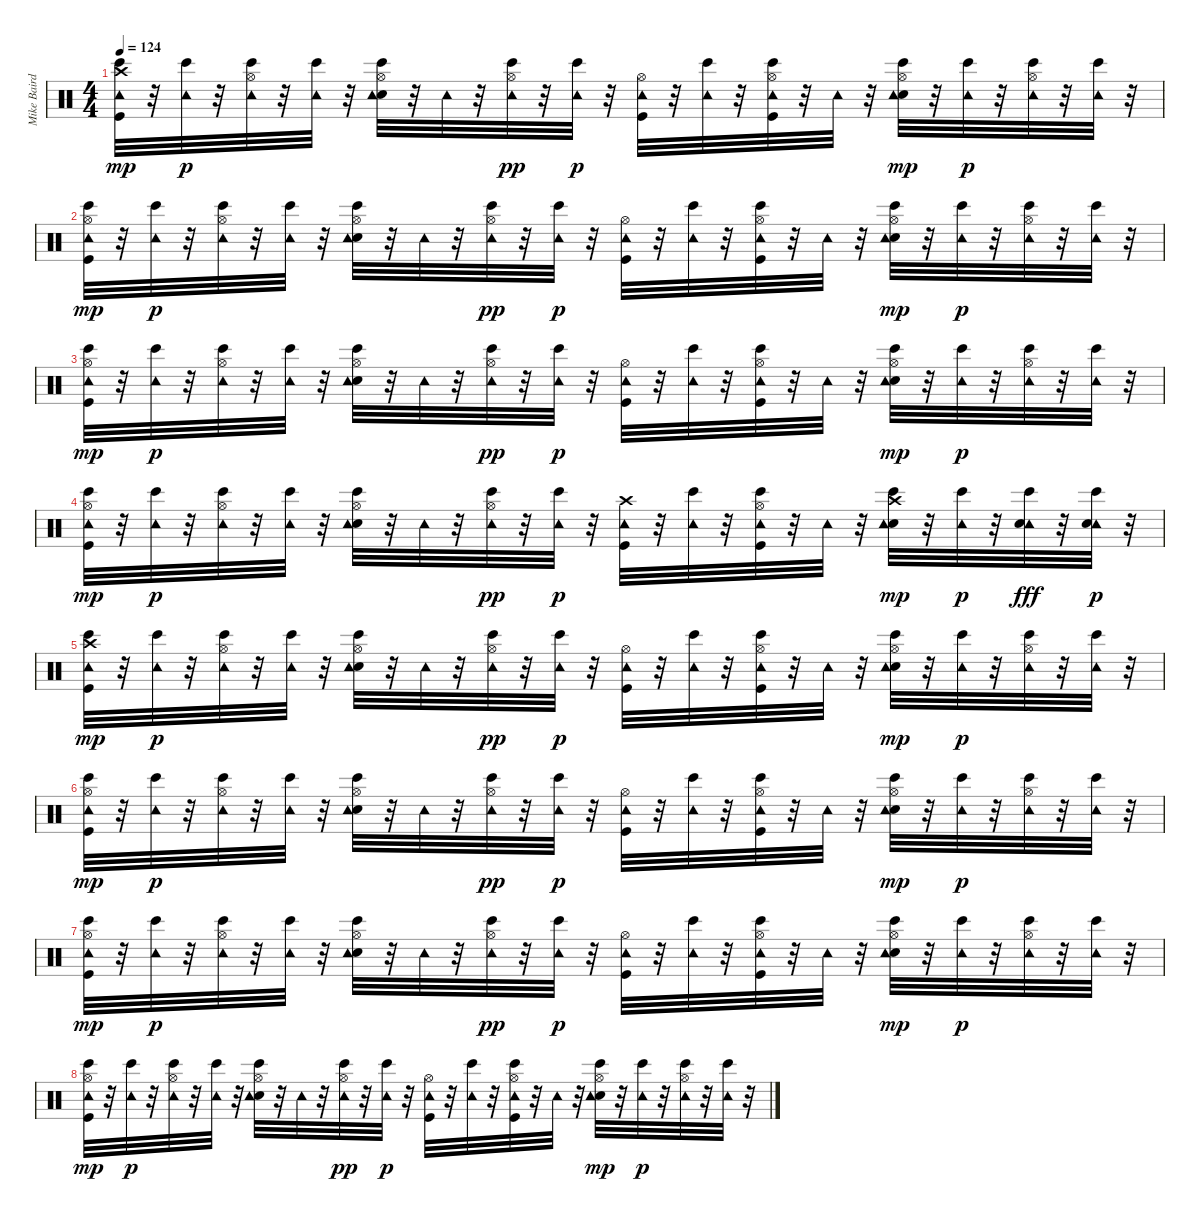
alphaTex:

\track ("Mike Baird [drums]" "Mike Baird") {instrument percussion}
\staff {score}
\articulation defaults
\ts (4 4)
\tempo 124
\clef neutral
\ks c
("Bongo High (hit)" "Kick (hit)" "Crash high (hit)" "Tambourine (hit)").32{dy mp} r.32 ("Tambourine (hit)" "Bongo High (hit)").32{dy p} r.32 ("Hi-Hat (open)" "Tambourine (hit)" "Bongo High (hit)").32 r.32 ("Tambourine (hit)" "Bongo High (hit)").32 r.32 ("Electric Snare (hit)" "Hi-Hat (open)" "Bongo High (hit)" "Tambourine (hit)").32 r.32 "Tambourine (hit)".32 r.32 ("Hi-Hat (open)" "Tambourine (hit)" "Bongo High (hit)").32{dy pp} r.32 ("Bongo High (hit)" "Tambourine (hit)").32{dy p} r.32 ("Kick (hit)" "Hi-Hat (open)" "Tambourine (hit)").32 r.32 ("Bongo High (hit)" "Tambourine (hit)").32 r.32 ("Bongo High (hit)" "Kick (hit)" "Hi-Hat (open)" "Tambourine (hit)").32 r.32 "Tambourine (hit)".32 r.32 ("Bongo High (hit)" "Electric Snare (hit)" "Hi-Hat (open)" "Tambourine (hit)").32{dy mp} r.32 ("Tambourine (hit)" "Bongo High (hit)").32{dy p} r.32 ("Bongo High (hit)" "Hi-Hat (open)" "Tambourine (hit)").32 r.32 ("Tambourine (hit)" "Bongo High (hit)").32 r.32 |
("Bongo High (hit)" "Kick (hit)" "Hi-Hat (open)" "Tambourine (hit)").32{dy mp} r.32 ("Tambourine (hit)" "Bongo High (hit)").32{dy p} r.32 ("Hi-Hat (open)" "Tambourine (hit)" "Bongo High (hit)").32 r.32 ("Tambourine (hit)" "Bongo High (hit)").32 r.32 ("Electric Snare (hit)" "Hi-Hat (open)" "Bongo High (hit)" "Tambourine (hit)").32 r.32 "Tambourine (hit)".32 r.32 ("Hi-Hat (open)" "Tambourine (hit)" "Bongo High (hit)").32{dy pp} r.32 ("Bongo High (hit)" "Tambourine (hit)").32{dy p} r.32 ("Kick (hit)" "Hi-Hat (open)" "Tambourine (hit)").32 r.32 ("Bongo High (hit)" "Tambourine (hit)").32 r.32 ("Bongo High (hit)" "Kick (hit)" "Hi-Hat (open)" "Tambourine (hit)").32 r.32 "Tambourine (hit)".32 r.32 ("Bongo High (hit)" "Electric Snare (hit)" "Hi-Hat (open)" "Tambourine (hit)").32{dy mp} r.32 ("Tambourine (hit)" "Bongo High (hit)").32{dy p} r.32 ("Bongo High (hit)" "Hi-Hat (open)" "Tambourine (hit)").32 r.32 ("Tambourine (hit)" "Bongo High (hit)").32 r.32 |
("Bongo High (hit)" "Kick (hit)" "Hi-Hat (open)" "Tambourine (hit)").32{dy mp} r.32 ("Tambourine (hit)" "Bongo High (hit)").32{dy p} r.32 ("Hi-Hat (open)" "Tambourine (hit)" "Bongo High (hit)").32 r.32 ("Tambourine (hit)" "Bongo High (hit)").32 r.32 ("Electric Snare (hit)" "Hi-Hat (open)" "Bongo High (hit)" "Tambourine (hit)").32 r.32 "Tambourine (hit)".32 r.32 ("Hi-Hat (open)" "Tambourine (hit)" "Bongo High (hit)").32{dy pp} r.32 ("Bongo High (hit)" "Tambourine (hit)").32{dy p} r.32 ("Kick (hit)" "Hi-Hat (open)" "Tambourine (hit)").32 r.32 ("Bongo High (hit)" "Tambourine (hit)").32 r.32 ("Bongo High (hit)" "Kick (hit)" "Hi-Hat (open)" "Tambourine (hit)").32 r.32 "Tambourine (hit)".32 r.32 ("Bongo High (hit)" "Electric Snare (hit)" "Hi-Hat (open)" "Tambourine (hit)").32{dy mp} r.32 ("Tambourine (hit)" "Bongo High (hit)").32{dy p} r.32 ("Bongo High (hit)" "Hi-Hat (open)" "Tambourine (hit)").32 r.32 ("Tambourine (hit)" "Bongo High (hit)").32 r.32 |
("Bongo High (hit)" "Kick (hit)" "Hi-Hat (open)" "Tambourine (hit)").32{dy mp} r.32 ("Tambourine (hit)" "Bongo High (hit)").32{dy p} r.32 ("Hi-Hat (open)" "Tambourine (hit)" "Bongo High (hit)").32 r.32 ("Tambourine (hit)" "Bongo High (hit)").32 r.32 ("Electric Snare (hit)" "Hi-Hat (open)" "Bongo High (hit)" "Tambourine (hit)").32 r.32 "Tambourine (hit)".32 r.32 ("Hi-Hat (open)" "Tambourine (hit)" "Bongo High (hit)").32{dy pp} r.32 ("Bongo High (hit)" "Tambourine (hit)").32{dy p} r.32 ("Kick (hit)" "Crash high (hit)" "Tambourine (hit)").32 r.32 ("Bongo High (hit)" "Tambourine (hit)").32 r.32 ("Bongo High (hit)" "Kick (hit)" "Hi-Hat (open)" "Tambourine (hit)").32 r.32 "Tambourine (hit)".32 r.32 ("Bongo High (hit)" "Electric Snare (hit)" "Crash high (hit)" "Tambourine (hit)").32{dy mp} r.32 ("Tambourine (hit)" "Bongo High (hit)").32{dy p} r.32 ("Bongo High (hit)" "Tambourine (hit)" "Electric Snare (hit)").32{dy fff} r.32 ("Tambourine (hit)" "Bongo High (hit)" "Electric Snare (hit)").32{dy p} r.32 |
("Bongo High (hit)" "Kick (hit)" "Crash high (hit)" "Tambourine (hit)").32{dy mp} r.32 ("Tambourine (hit)" "Bongo High (hit)").32{dy p} r.32 ("Hi-Hat (open)" "Tambourine (hit)" "Bongo High (hit)").32 r.32 ("Tambourine (hit)" "Bongo High (hit)").32 r.32 ("Electric Snare (hit)" "Hi-Hat (open)" "Bongo High (hit)" "Tambourine (hit)").32 r.32 "Tambourine (hit)".32 r.32 ("Hi-Hat (open)" "Tambourine (hit)" "Bongo High (hit)").32{dy pp} r.32 ("Bongo High (hit)" "Tambourine (hit)").32{dy p} r.32 ("Kick (hit)" "Hi-Hat (open)" "Tambourine (hit)").32 r.32 ("Bongo High (hit)" "Tambourine (hit)").32 r.32 ("Bongo High (hit)" "Kick (hit)" "Hi-Hat (open)" "Tambourine (hit)").32 r.32 "Tambourine (hit)".32 r.32 ("Bongo High (hit)" "Electric Snare (hit)" "Hi-Hat (open)" "Tambourine (hit)").32{dy mp} r.32 ("Tambourine (hit)" "Bongo High (hit)").32{dy p} r.32 ("Bongo High (hit)" "Hi-Hat (open)" "Tambourine (hit)").32 r.32 ("Tambourine (hit)" "Bongo High (hit)").32 r.32 |
("Bongo High (hit)" "Kick (hit)" "Hi-Hat (open)" "Tambourine (hit)").32{dy mp} r.32 ("Tambourine (hit)" "Bongo High (hit)").32{dy p} r.32 ("Hi-Hat (open)" "Tambourine (hit)" "Bongo High (hit)").32 r.32 ("Tambourine (hit)" "Bongo High (hit)").32 r.32 ("Electric Snare (hit)" "Hi-Hat (open)" "Bongo High (hit)" "Tambourine (hit)").32 r.32 "Tambourine (hit)".32 r.32 ("Hi-Hat (open)" "Tambourine (hit)" "Bongo High (hit)").32{dy pp} r.32 ("Bongo High (hit)" "Tambourine (hit)").32{dy p} r.32 ("Kick (hit)" "Hi-Hat (open)" "Tambourine (hit)").32 r.32 ("Bongo High (hit)" "Tambourine (hit)").32 r.32 ("Bongo High (hit)" "Kick (hit)" "Hi-Hat (open)" "Tambourine (hit)").32 r.32 "Tambourine (hit)".32 r.32 ("Bongo High (hit)" "Electric Snare (hit)" "Hi-Hat (open)" "Tambourine (hit)").32{dy mp} r.32 ("Tambourine (hit)" "Bongo High (hit)").32{dy p} r.32 ("Bongo High (hit)" "Hi-Hat (open)" "Tambourine (hit)").32 r.32 ("Tambourine (hit)" "Bongo High (hit)").32 r.32 |
("Bongo High (hit)" "Kick (hit)" "Hi-Hat (open)" "Tambourine (hit)").32{dy mp} r.32 ("Tambourine (hit)" "Bongo High (hit)").32{dy p} r.32 ("Hi-Hat (open)" "Tambourine (hit)" "Bongo High (hit)").32 r.32 ("Tambourine (hit)" "Bongo High (hit)").32 r.32 ("Electric Snare (hit)" "Hi-Hat (open)" "Bongo High (hit)" "Tambourine (hit)").32 r.32 "Tambourine (hit)".32 r.32 ("Hi-Hat (open)" "Tambourine (hit)" "Bongo High (hit)").32{dy pp} r.32 ("Bongo High (hit)" "Tambourine (hit)").32{dy p} r.32 ("Kick (hit)" "Hi-Hat (open)" "Tambourine (hit)").32 r.32 ("Bongo High (hit)" "Tambourine (hit)").32 r.32 ("Bongo High (hit)" "Kick (hit)" "Hi-Hat (open)" "Tambourine (hit)").32 r.32 "Tambourine (hit)".32 r.32 ("Bongo High (hit)" "Electric Snare (hit)" "Hi-Hat (open)" "Tambourine (hit)").32{dy mp} r.32 ("Tambourine (hit)" "Bongo High (hit)").32{dy p} r.32 ("Bongo High (hit)" "Hi-Hat (open)" "Tambourine (hit)").32 r.32 ("Tambourine (hit)" "Bongo High (hit)").32 r.32 |
("Bongo High (hit)" "Kick (hit)" "Hi-Hat (open)" "Tambourine (hit)").32{dy mp} r.32 ("Tambourine (hit)" "Bongo High (hit)").32{dy p} r.32 ("Hi-Hat (open)" "Tambourine (hit)" "Bongo High (hit)").32 r.32 ("Tambourine (hit)" "Bongo High (hit)").32 r.32 ("Electric Snare (hit)" "Hi-Hat (open)" "Bongo High (hit)" "Tambourine (hit)").32 r.32 "Tambourine (hit)".32 r.32 ("Hi-Hat (open)" "Tambourine (hit)" "Bongo High (hit)").32{dy pp} r.32 ("Bongo High (hit)" "Tambourine (hit)").32{dy p} r.32 ("Kick (hit)" "Hi-Hat (open)" "Tambourine (hit)").32 r.32 ("Bongo High (hit)" "Tambourine (hit)").32 r.32 ("Bongo High (hit)" "Kick (hit)" "Hi-Hat (open)" "Tambourine (hit)").32 r.32 "Tambourine (hit)".32 r.32 ("Bongo High (hit)" "Electric Snare (hit)" "Hi-Hat (open)" "Tambourine (hit)").32{dy mp} r.32 ("Tambourine (hit)" "Bongo High (hit)").32{dy p} r.32 ("Bongo High (hit)" "Hi-Hat (open)" "Tambourine (hit)").32 r.32 ("Tambourine (hit)" "Bongo High (hit)").32 r.32
